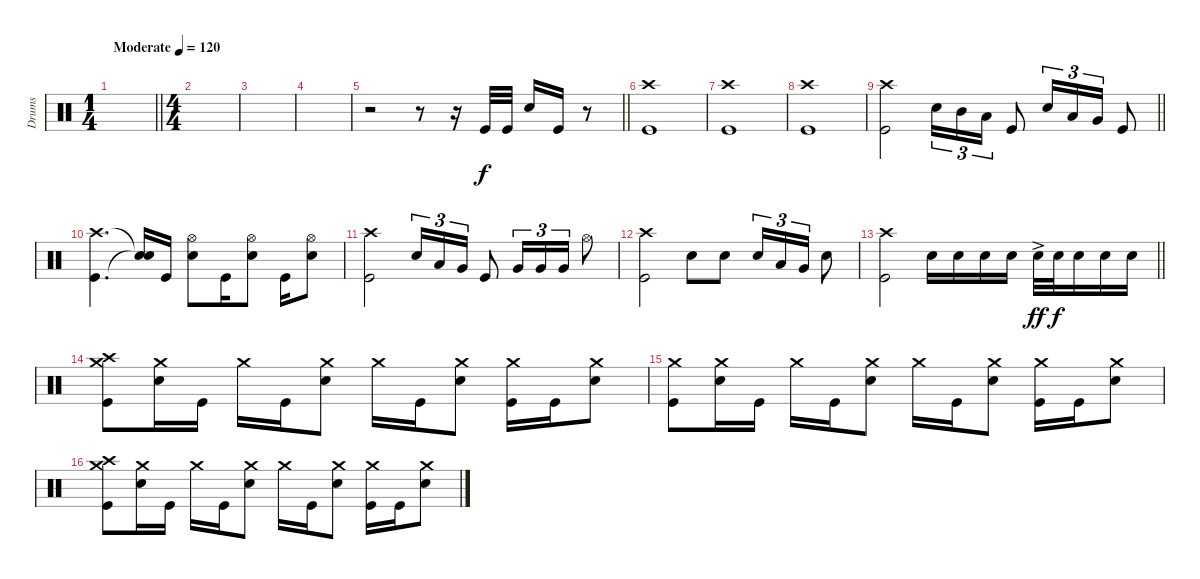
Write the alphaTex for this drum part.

\track ("Drums" "Drums") {instrument percussion}
\staff
\articulation defaults
\ts (1 4)
\tempo (120 "Moderate")
\clef neutral
\barLineRight lightlight
\ks c
|
\ts (4 4)
|
|
|
\barLineRight lightlight
r.2 r.8 r.16 "Kick (hit)".32 "Kick (hit)".32 "Electric Snare (hit)".16 "Kick (hit)".16 r.8 |
\section ("" "")
("Crash high (hit)" "Kick (hit)").1 |
("Crash high (hit)" "Kick (hit)").1 |
("Crash high (hit)" "Kick (hit)").1 |
\barLineRight lightlight
("Crash high (hit)" "Kick (hit)").2 "Electric Snare (hit)".16{tu (3 2)} "Mid Tom (hit)".16{tu (3 2)} "Low Tom (hit)".16{tu (3 2)} "Kick (hit)".8 "Electric Snare (hit)".16{tu (3 2)} "Low Tom (hit)".16{tu (3 2)} "Very Low Tom (hit)".16{tu (3 2)} "Kick (hit)".8 |
("Crash high (hit)" "Kick (hit)").4{d} ("Snare (hit)"{t} "Snare (hit)"{t}).16 "Kick (hit)".16 ("Hi-Hat (open)" "Electric Snare (hit)").8 "Kick (hit)".16 ("Hi-Hat (open)" "Electric Snare (hit)").8 "Kick (hit)".16 ("Hi-Hat (open)" "Electric Snare (hit)").8 |
("Crash high (hit)" "Kick (hit)").2 "Electric Snare (hit)".16{tu (3 2)} "Low Tom (hit)".16{tu (3 2)} "Very Low Tom (hit)".16{tu (3 2)} "Kick (hit)".8 "Very Low Tom (hit)".16{tu (3 2)} "Very Low Tom (hit)".16{tu (3 2)} "Very Low Tom (hit)".16{tu (3 2)} "Hi-Hat (open)".8 |
("Crash high (hit)" "Kick (hit)").2 "Electric Snare (hit)".8 "Electric Snare (hit)".8 "Electric Snare (hit)".16{tu (3 2)} "Low Tom (hit)".16{tu (3 2)} "Very Low Tom (hit)".16{tu (3 2)} "Electric Snare (hit)".8 |
\barLineRight lightlight
("Crash high (hit)" "Kick (hit)").2 "Electric Snare (hit)".16 "Electric Snare (hit)".16 "Electric Snare (hit)".16 "Electric Snare (hit)".16 "Electric Snare (hit)"{ac}.32{dy ff} "Electric Snare (hit)".32{dy f} "Electric Snare (hit)".16 "Electric Snare (hit)".16 "Electric Snare (hit)".16 |
\section ("" "")
("Crash high (hit)" "Crash medium (hit)" "Kick (hit)").8 ("Crash medium (hit)" "Electric Snare (hit)").16 "Kick (hit)".16 "Crash medium (hit)".16 "Kick (hit)".16 ("Crash medium (hit)" "Electric Snare (hit)").8 "Crash medium (hit)".16 "Kick (hit)".16 ("Crash medium (hit)" "Electric Snare (hit)").8 ("Crash medium (hit)" "Kick (hit)").16 "Kick (hit)".16 ("Crash medium (hit)" "Electric Snare (hit)").8 |
("Crash medium (hit)" "Kick (hit)").8 ("Crash medium (hit)" "Electric Snare (hit)").16 "Kick (hit)".16 "Crash medium (hit)".16 "Kick (hit)".16 ("Crash medium (hit)" "Electric Snare (hit)").8 "Crash medium (hit)".16 "Kick (hit)".16 ("Crash medium (hit)" "Electric Snare (hit)").8 ("Crash medium (hit)" "Kick (hit)").16 "Kick (hit)".16 ("Crash medium (hit)" "Electric Snare (hit)").8 |
("Crash high (hit)" "Crash medium (hit)" "Kick (hit)").8 ("Crash medium (hit)" "Electric Snare (hit)").16 "Kick (hit)".16 "Crash medium (hit)".16 "Kick (hit)".16 ("Crash medium (hit)" "Electric Snare (hit)").8 "Crash medium (hit)".16 "Kick (hit)".16 ("Crash medium (hit)" "Electric Snare (hit)").8 ("Crash medium (hit)" "Kick (hit)").16 "Kick (hit)".16 ("Crash medium (hit)" "Electric Snare (hit)").8
